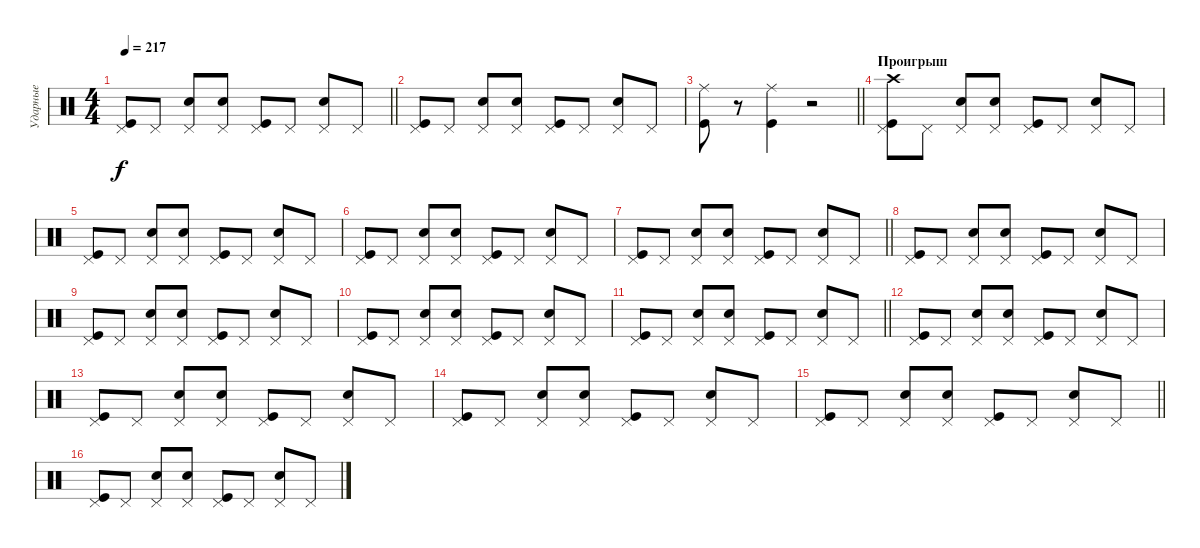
\track ("Ударные" "Ударные") {instrument percussion}
\staff {score}
\articulation defaults
\ts (4 4)
\tempo 217
\clef neutral
\barLineRight lightlight
\ks c
("Pedal Hi-Hat (hit)" "Kick (hit)").8{dy f} "Pedal Hi-Hat (hit)".8 ("Pedal Hi-Hat (hit)" "Snare (hit) 2").8 ("Pedal Hi-Hat (hit)" "Snare (hit) 2").8 ("Pedal Hi-Hat (hit)" "Kick (hit)").8 "Pedal Hi-Hat (hit)".8 ("Pedal Hi-Hat (hit)" "Snare (hit) 2").8 "Pedal Hi-Hat (hit)".8 |
("Pedal Hi-Hat (hit)" "Kick (hit)").8 "Pedal Hi-Hat (hit)".8 ("Pedal Hi-Hat (hit)" "Snare (hit) 2").8 ("Pedal Hi-Hat (hit)" "Snare (hit) 2").8 ("Pedal Hi-Hat (hit)" "Kick (hit)").8 "Pedal Hi-Hat (hit)".8 ("Pedal Hi-Hat (hit)" "Snare (hit) 2").8 "Pedal Hi-Hat (hit)".8 |
\barLineRight lightlight
("Kick (hit)" "Ride (middle)").8 r.8 ("Kick (hit)" "Ride (middle)").4 r.2 |
\section ("" "Проигрыш")
("Pedal Hi-Hat (hit)" "Kick (hit)" "Crash high (hit)").8 "Pedal Hi-Hat (hit)".8 ("Pedal Hi-Hat (hit)" "Snare (hit) 2").8 ("Pedal Hi-Hat (hit)" "Snare (hit) 2").8 ("Pedal Hi-Hat (hit)" "Kick (hit)").8 "Pedal Hi-Hat (hit)".8 ("Pedal Hi-Hat (hit)" "Snare (hit) 2").8 "Pedal Hi-Hat (hit)".8 |
("Pedal Hi-Hat (hit)" "Kick (hit)").8 "Pedal Hi-Hat (hit)".8 ("Pedal Hi-Hat (hit)" "Snare (hit) 2").8 ("Pedal Hi-Hat (hit)" "Snare (hit) 2").8 ("Pedal Hi-Hat (hit)" "Kick (hit)").8 "Pedal Hi-Hat (hit)".8 ("Pedal Hi-Hat (hit)" "Snare (hit) 2").8 "Pedal Hi-Hat (hit)".8 |
("Pedal Hi-Hat (hit)" "Kick (hit)").8 "Pedal Hi-Hat (hit)".8 ("Pedal Hi-Hat (hit)" "Snare (hit) 2").8 ("Pedal Hi-Hat (hit)" "Snare (hit) 2").8 ("Pedal Hi-Hat (hit)" "Kick (hit)").8 "Pedal Hi-Hat (hit)".8 ("Pedal Hi-Hat (hit)" "Snare (hit) 2").8 "Pedal Hi-Hat (hit)".8 |
\barLineRight lightlight
("Pedal Hi-Hat (hit)" "Kick (hit)").8 "Pedal Hi-Hat (hit)".8 ("Pedal Hi-Hat (hit)" "Snare (hit) 2").8 ("Pedal Hi-Hat (hit)" "Snare (hit) 2").8 ("Pedal Hi-Hat (hit)" "Kick (hit)").8 "Pedal Hi-Hat (hit)".8 ("Pedal Hi-Hat (hit)" "Snare (hit) 2").8 "Pedal Hi-Hat (hit)".8 |
("Pedal Hi-Hat (hit)" "Kick (hit)").8 "Pedal Hi-Hat (hit)".8 ("Pedal Hi-Hat (hit)" "Snare (hit) 2").8 ("Pedal Hi-Hat (hit)" "Snare (hit) 2").8 ("Pedal Hi-Hat (hit)" "Kick (hit)").8 "Pedal Hi-Hat (hit)".8 ("Pedal Hi-Hat (hit)" "Snare (hit) 2").8 "Pedal Hi-Hat (hit)".8 |
("Pedal Hi-Hat (hit)" "Kick (hit)").8 "Pedal Hi-Hat (hit)".8 ("Pedal Hi-Hat (hit)" "Snare (hit) 2").8 ("Pedal Hi-Hat (hit)" "Snare (hit) 2").8 ("Pedal Hi-Hat (hit)" "Kick (hit)").8 "Pedal Hi-Hat (hit)".8 ("Pedal Hi-Hat (hit)" "Snare (hit) 2").8 "Pedal Hi-Hat (hit)".8 |
("Pedal Hi-Hat (hit)" "Kick (hit)").8 "Pedal Hi-Hat (hit)".8 ("Pedal Hi-Hat (hit)" "Snare (hit) 2").8 ("Pedal Hi-Hat (hit)" "Snare (hit) 2").8 ("Pedal Hi-Hat (hit)" "Kick (hit)").8 "Pedal Hi-Hat (hit)".8 ("Pedal Hi-Hat (hit)" "Snare (hit) 2").8 "Pedal Hi-Hat (hit)".8 |
\barLineRight lightlight
("Pedal Hi-Hat (hit)" "Kick (hit)").8 "Pedal Hi-Hat (hit)".8 ("Pedal Hi-Hat (hit)" "Snare (hit) 2").8 ("Pedal Hi-Hat (hit)" "Snare (hit) 2").8 ("Pedal Hi-Hat (hit)" "Kick (hit)").8 "Pedal Hi-Hat (hit)".8 ("Pedal Hi-Hat (hit)" "Snare (hit) 2").8 "Pedal Hi-Hat (hit)".8 |
("Pedal Hi-Hat (hit)" "Kick (hit)").8 "Pedal Hi-Hat (hit)".8 ("Pedal Hi-Hat (hit)" "Snare (hit) 2").8 ("Pedal Hi-Hat (hit)" "Snare (hit) 2").8 ("Pedal Hi-Hat (hit)" "Kick (hit)").8 "Pedal Hi-Hat (hit)".8 ("Pedal Hi-Hat (hit)" "Snare (hit) 2").8 "Pedal Hi-Hat (hit)".8 |
("Pedal Hi-Hat (hit)" "Kick (hit)").8 "Pedal Hi-Hat (hit)".8 ("Pedal Hi-Hat (hit)" "Snare (hit) 2").8 ("Pedal Hi-Hat (hit)" "Snare (hit) 2").8 ("Pedal Hi-Hat (hit)" "Kick (hit)").8 "Pedal Hi-Hat (hit)".8 ("Pedal Hi-Hat (hit)" "Snare (hit) 2").8 "Pedal Hi-Hat (hit)".8 |
("Pedal Hi-Hat (hit)" "Kick (hit)").8 "Pedal Hi-Hat (hit)".8 ("Pedal Hi-Hat (hit)" "Snare (hit) 2").8 ("Pedal Hi-Hat (hit)" "Snare (hit) 2").8 ("Pedal Hi-Hat (hit)" "Kick (hit)").8 "Pedal Hi-Hat (hit)".8 ("Pedal Hi-Hat (hit)" "Snare (hit) 2").8 "Pedal Hi-Hat (hit)".8 |
\barLineRight lightlight
("Pedal Hi-Hat (hit)" "Kick (hit)").8 "Pedal Hi-Hat (hit)".8 ("Pedal Hi-Hat (hit)" "Snare (hit) 2").8 ("Pedal Hi-Hat (hit)" "Snare (hit) 2").8 ("Pedal Hi-Hat (hit)" "Kick (hit)").8 "Pedal Hi-Hat (hit)".8 ("Pedal Hi-Hat (hit)" "Snare (hit) 2").8 "Pedal Hi-Hat (hit)".8 |
("Pedal Hi-Hat (hit)" "Kick (hit)").8 "Pedal Hi-Hat (hit)".8 ("Pedal Hi-Hat (hit)" "Snare (hit) 2").8 ("Pedal Hi-Hat (hit)" "Snare (hit) 2").8 ("Pedal Hi-Hat (hit)" "Kick (hit)").8 "Pedal Hi-Hat (hit)".8 ("Pedal Hi-Hat (hit)" "Snare (hit) 2").8 "Pedal Hi-Hat (hit)".8
